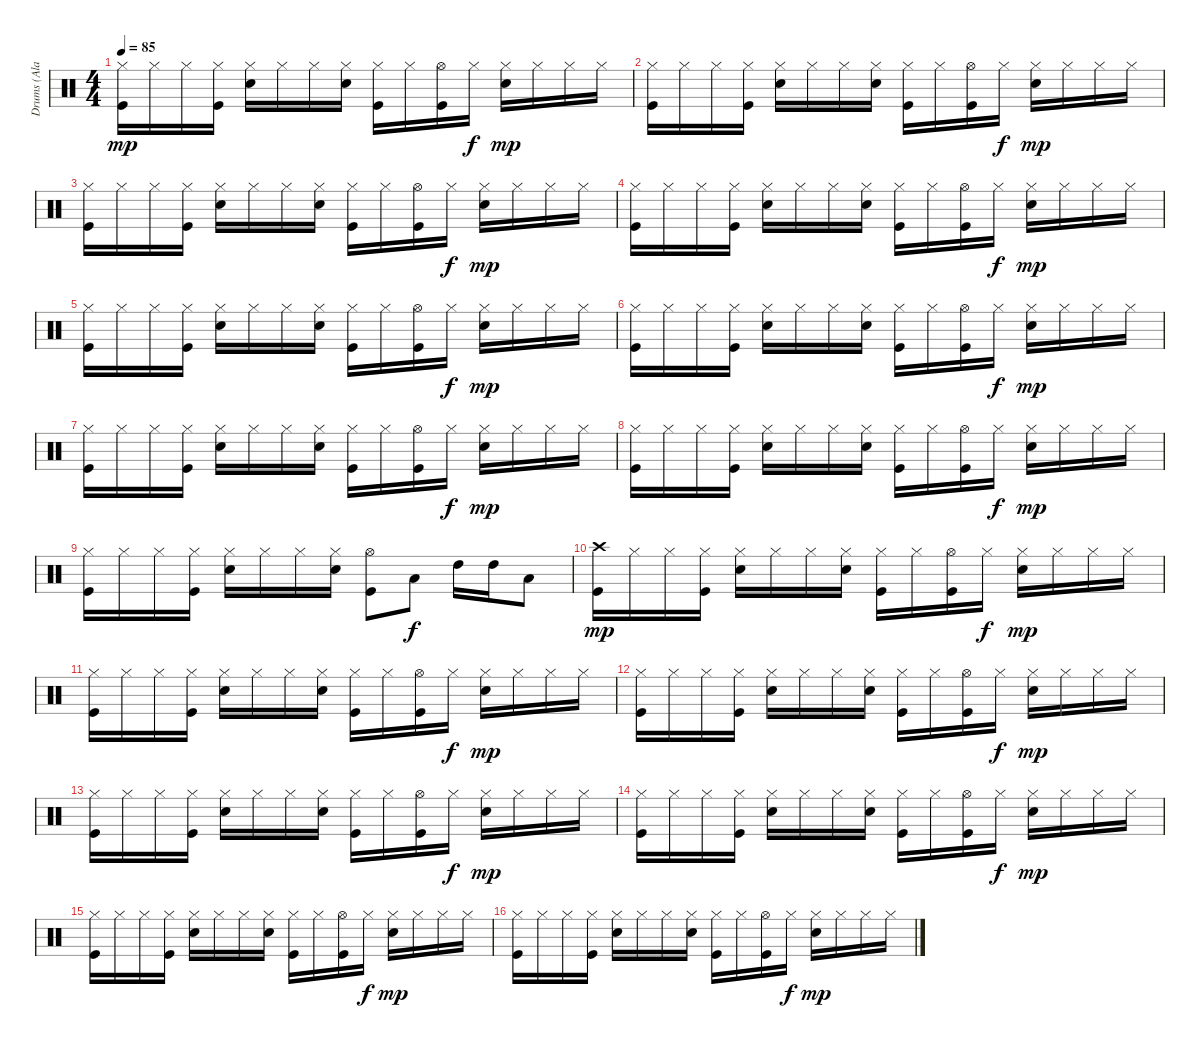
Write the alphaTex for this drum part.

\track ("Drums (Alan White)" "Drums (Ala") {instrument percussion}
\staff {score}
\articulation defaults
\ts (4 4)
\tempo 85
\clef neutral
\ks c
("Hi-Hat (closed)" "Kick (hit)").16{dy mp} "Hi-Hat (closed)".16 "Hi-Hat (closed)".16 ("Hi-Hat (closed)" "Kick (hit)").16 ("Hi-Hat (closed)" "Snare (hit) 2").16 "Hi-Hat (closed)".16 "Hi-Hat (closed)".16 ("Hi-Hat (closed)" "Snare (hit) 2").16 ("Hi-Hat (closed)" "Kick (hit)").16 "Hi-Hat (closed)".16 ("Hi-Hat (open)" "Kick (hit)").16 "Hi-Hat (closed)".16{dy f} ("Hi-Hat (closed)" "Snare (hit) 2").16{dy mp} "Hi-Hat (closed)".16 "Hi-Hat (closed)".16 "Hi-Hat (closed)".16 |
("Hi-Hat (closed)" "Kick (hit)").16 "Hi-Hat (closed)".16 "Hi-Hat (closed)".16 ("Hi-Hat (closed)" "Kick (hit)").16 ("Hi-Hat (closed)" "Snare (hit) 2").16 "Hi-Hat (closed)".16 "Hi-Hat (closed)".16 ("Hi-Hat (closed)" "Snare (hit) 2").16 ("Hi-Hat (closed)" "Kick (hit)").16 "Hi-Hat (closed)".16 ("Hi-Hat (open)" "Kick (hit)").16 "Hi-Hat (closed)".16{dy f} ("Hi-Hat (closed)" "Snare (hit) 2").16{dy mp} "Hi-Hat (closed)".16 "Hi-Hat (closed)".16 "Hi-Hat (closed)".16 |
("Hi-Hat (closed)" "Kick (hit)").16 "Hi-Hat (closed)".16 "Hi-Hat (closed)".16 ("Hi-Hat (closed)" "Kick (hit)").16 ("Hi-Hat (closed)" "Snare (hit) 2").16 "Hi-Hat (closed)".16 "Hi-Hat (closed)".16 ("Hi-Hat (closed)" "Snare (hit) 2").16 ("Hi-Hat (closed)" "Kick (hit)").16 "Hi-Hat (closed)".16 ("Hi-Hat (open)" "Kick (hit)").16 "Hi-Hat (closed)".16{dy f} ("Hi-Hat (closed)" "Snare (hit) 2").16{dy mp} "Hi-Hat (closed)".16 "Hi-Hat (closed)".16 "Hi-Hat (closed)".16 |
("Hi-Hat (closed)" "Kick (hit)").16 "Hi-Hat (closed)".16 "Hi-Hat (closed)".16 ("Hi-Hat (closed)" "Kick (hit)").16 ("Hi-Hat (closed)" "Snare (hit) 2").16 "Hi-Hat (closed)".16 "Hi-Hat (closed)".16 ("Hi-Hat (closed)" "Snare (hit) 2").16 ("Hi-Hat (closed)" "Kick (hit)").16 "Hi-Hat (closed)".16 ("Hi-Hat (open)" "Kick (hit)").16 "Hi-Hat (closed)".16{dy f} ("Hi-Hat (closed)" "Snare (hit) 2").16{dy mp} "Hi-Hat (closed)".16 "Hi-Hat (closed)".16 "Hi-Hat (closed)".16 |
("Hi-Hat (closed)" "Kick (hit)").16 "Hi-Hat (closed)".16 "Hi-Hat (closed)".16 ("Hi-Hat (closed)" "Kick (hit)").16 ("Hi-Hat (closed)" "Snare (hit) 2").16 "Hi-Hat (closed)".16 "Hi-Hat (closed)".16 ("Hi-Hat (closed)" "Snare (hit) 2").16 ("Hi-Hat (closed)" "Kick (hit)").16 "Hi-Hat (closed)".16 ("Hi-Hat (open)" "Kick (hit)").16 "Hi-Hat (closed)".16{dy f} ("Hi-Hat (closed)" "Snare (hit) 2").16{dy mp} "Hi-Hat (closed)".16 "Hi-Hat (closed)".16 "Hi-Hat (closed)".16 |
("Hi-Hat (closed)" "Kick (hit)").16 "Hi-Hat (closed)".16 "Hi-Hat (closed)".16 ("Hi-Hat (closed)" "Kick (hit)").16 ("Hi-Hat (closed)" "Snare (hit) 2").16 "Hi-Hat (closed)".16 "Hi-Hat (closed)".16 ("Hi-Hat (closed)" "Snare (hit) 2").16 ("Hi-Hat (closed)" "Kick (hit)").16 "Hi-Hat (closed)".16 ("Hi-Hat (open)" "Kick (hit)").16 "Hi-Hat (closed)".16{dy f} ("Hi-Hat (closed)" "Snare (hit) 2").16{dy mp} "Hi-Hat (closed)".16 "Hi-Hat (closed)".16 "Hi-Hat (closed)".16 |
("Hi-Hat (closed)" "Kick (hit)").16 "Hi-Hat (closed)".16 "Hi-Hat (closed)".16 ("Hi-Hat (closed)" "Kick (hit)").16 ("Hi-Hat (closed)" "Snare (hit) 2").16 "Hi-Hat (closed)".16 "Hi-Hat (closed)".16 ("Hi-Hat (closed)" "Snare (hit) 2").16 ("Hi-Hat (closed)" "Kick (hit)").16 "Hi-Hat (closed)".16 ("Hi-Hat (open)" "Kick (hit)").16 "Hi-Hat (closed)".16{dy f} ("Hi-Hat (closed)" "Snare (hit) 2").16{dy mp} "Hi-Hat (closed)".16 "Hi-Hat (closed)".16 "Hi-Hat (closed)".16 |
("Hi-Hat (closed)" "Kick (hit)").16 "Hi-Hat (closed)".16 "Hi-Hat (closed)".16 ("Hi-Hat (closed)" "Kick (hit)").16 ("Hi-Hat (closed)" "Snare (hit) 2").16 "Hi-Hat (closed)".16 "Hi-Hat (closed)".16 ("Hi-Hat (closed)" "Snare (hit) 2").16 ("Hi-Hat (closed)" "Kick (hit)").16 "Hi-Hat (closed)".16 ("Hi-Hat (open)" "Kick (hit)").16 "Hi-Hat (closed)".16{dy f} ("Hi-Hat (closed)" "Snare (hit) 2").16{dy mp} "Hi-Hat (closed)".16 "Hi-Hat (closed)".16 "Hi-Hat (closed)".16 |
("Hi-Hat (closed)" "Kick (hit)").16 "Hi-Hat (closed)".16 "Hi-Hat (closed)".16 ("Hi-Hat (closed)" "Kick (hit)").16 ("Hi-Hat (closed)" "Snare (hit) 2").16 "Hi-Hat (closed)".16 "Hi-Hat (closed)".16 ("Hi-Hat (closed)" "Snare (hit) 2").16 ("Hi-Hat (open)" "Kick (hit)").8 "Low Tom (hit)".8{dy f} "High Tom (hit)".16 "High Tom (hit)".16 "Low Tom (hit)".8 |
("Crash high (hit)" "Kick (hit)").16{dy mp} "Hi-Hat (closed)".16 "Hi-Hat (closed)".16 ("Hi-Hat (closed)" "Kick (hit)").16 ("Hi-Hat (closed)" "Snare (hit) 2").16 "Hi-Hat (closed)".16 "Hi-Hat (closed)".16 ("Hi-Hat (closed)" "Snare (hit) 2").16 ("Hi-Hat (closed)" "Kick (hit)").16 "Hi-Hat (closed)".16 ("Hi-Hat (open)" "Kick (hit)").16 "Hi-Hat (closed)".16{dy f} ("Hi-Hat (closed)" "Snare (hit) 2").16{dy mp} "Hi-Hat (closed)".16 "Hi-Hat (closed)".16 "Hi-Hat (closed)".16 |
("Hi-Hat (closed)" "Kick (hit)").16 "Hi-Hat (closed)".16 "Hi-Hat (closed)".16 ("Hi-Hat (closed)" "Kick (hit)").16 ("Hi-Hat (closed)" "Snare (hit) 2").16 "Hi-Hat (closed)".16 "Hi-Hat (closed)".16 ("Hi-Hat (closed)" "Snare (hit) 2").16 ("Hi-Hat (closed)" "Kick (hit)").16 "Hi-Hat (closed)".16 ("Hi-Hat (open)" "Kick (hit)").16 "Hi-Hat (closed)".16{dy f} ("Hi-Hat (closed)" "Snare (hit) 2").16{dy mp} "Hi-Hat (closed)".16 "Hi-Hat (closed)".16 "Hi-Hat (closed)".16 |
("Hi-Hat (closed)" "Kick (hit)").16 "Hi-Hat (closed)".16 "Hi-Hat (closed)".16 ("Hi-Hat (closed)" "Kick (hit)").16 ("Hi-Hat (closed)" "Snare (hit) 2").16 "Hi-Hat (closed)".16 "Hi-Hat (closed)".16 ("Hi-Hat (closed)" "Snare (hit) 2").16 ("Hi-Hat (closed)" "Kick (hit)").16 "Hi-Hat (closed)".16 ("Hi-Hat (open)" "Kick (hit)").16 "Hi-Hat (closed)".16{dy f} ("Hi-Hat (closed)" "Snare (hit) 2").16{dy mp} "Hi-Hat (closed)".16 "Hi-Hat (closed)".16 "Hi-Hat (closed)".16 |
("Hi-Hat (closed)" "Kick (hit)").16 "Hi-Hat (closed)".16 "Hi-Hat (closed)".16 ("Hi-Hat (closed)" "Kick (hit)").16 ("Hi-Hat (closed)" "Snare (hit) 2").16 "Hi-Hat (closed)".16 "Hi-Hat (closed)".16 ("Hi-Hat (closed)" "Snare (hit) 2").16 ("Hi-Hat (closed)" "Kick (hit)").16 "Hi-Hat (closed)".16 ("Hi-Hat (open)" "Kick (hit)").16 "Hi-Hat (closed)".16{dy f} ("Hi-Hat (closed)" "Snare (hit) 2").16{dy mp} "Hi-Hat (closed)".16 "Hi-Hat (closed)".16 "Hi-Hat (closed)".16 |
("Hi-Hat (closed)" "Kick (hit)").16 "Hi-Hat (closed)".16 "Hi-Hat (closed)".16 ("Hi-Hat (closed)" "Kick (hit)").16 ("Hi-Hat (closed)" "Snare (hit) 2").16 "Hi-Hat (closed)".16 "Hi-Hat (closed)".16 ("Hi-Hat (closed)" "Snare (hit) 2").16 ("Hi-Hat (closed)" "Kick (hit)").16 "Hi-Hat (closed)".16 ("Hi-Hat (open)" "Kick (hit)").16 "Hi-Hat (closed)".16{dy f} ("Hi-Hat (closed)" "Snare (hit) 2").16{dy mp} "Hi-Hat (closed)".16 "Hi-Hat (closed)".16 "Hi-Hat (closed)".16 |
("Hi-Hat (closed)" "Kick (hit)").16 "Hi-Hat (closed)".16 "Hi-Hat (closed)".16 ("Hi-Hat (closed)" "Kick (hit)").16 ("Hi-Hat (closed)" "Snare (hit) 2").16 "Hi-Hat (closed)".16 "Hi-Hat (closed)".16 ("Hi-Hat (closed)" "Snare (hit) 2").16 ("Hi-Hat (closed)" "Kick (hit)").16 "Hi-Hat (closed)".16 ("Hi-Hat (open)" "Kick (hit)").16 "Hi-Hat (closed)".16{dy f} ("Hi-Hat (closed)" "Snare (hit) 2").16{dy mp} "Hi-Hat (closed)".16 "Hi-Hat (closed)".16 "Hi-Hat (closed)".16 |
("Hi-Hat (closed)" "Kick (hit)").16 "Hi-Hat (closed)".16 "Hi-Hat (closed)".16 ("Hi-Hat (closed)" "Kick (hit)").16 ("Hi-Hat (closed)" "Snare (hit) 2").16 "Hi-Hat (closed)".16 "Hi-Hat (closed)".16 ("Hi-Hat (closed)" "Snare (hit) 2").16 ("Hi-Hat (closed)" "Kick (hit)").16 "Hi-Hat (closed)".16 ("Hi-Hat (open)" "Kick (hit)").16 "Hi-Hat (closed)".16{dy f} ("Hi-Hat (closed)" "Snare (hit) 2").16{dy mp} "Hi-Hat (closed)".16 "Hi-Hat (closed)".16 "Hi-Hat (closed)".16
